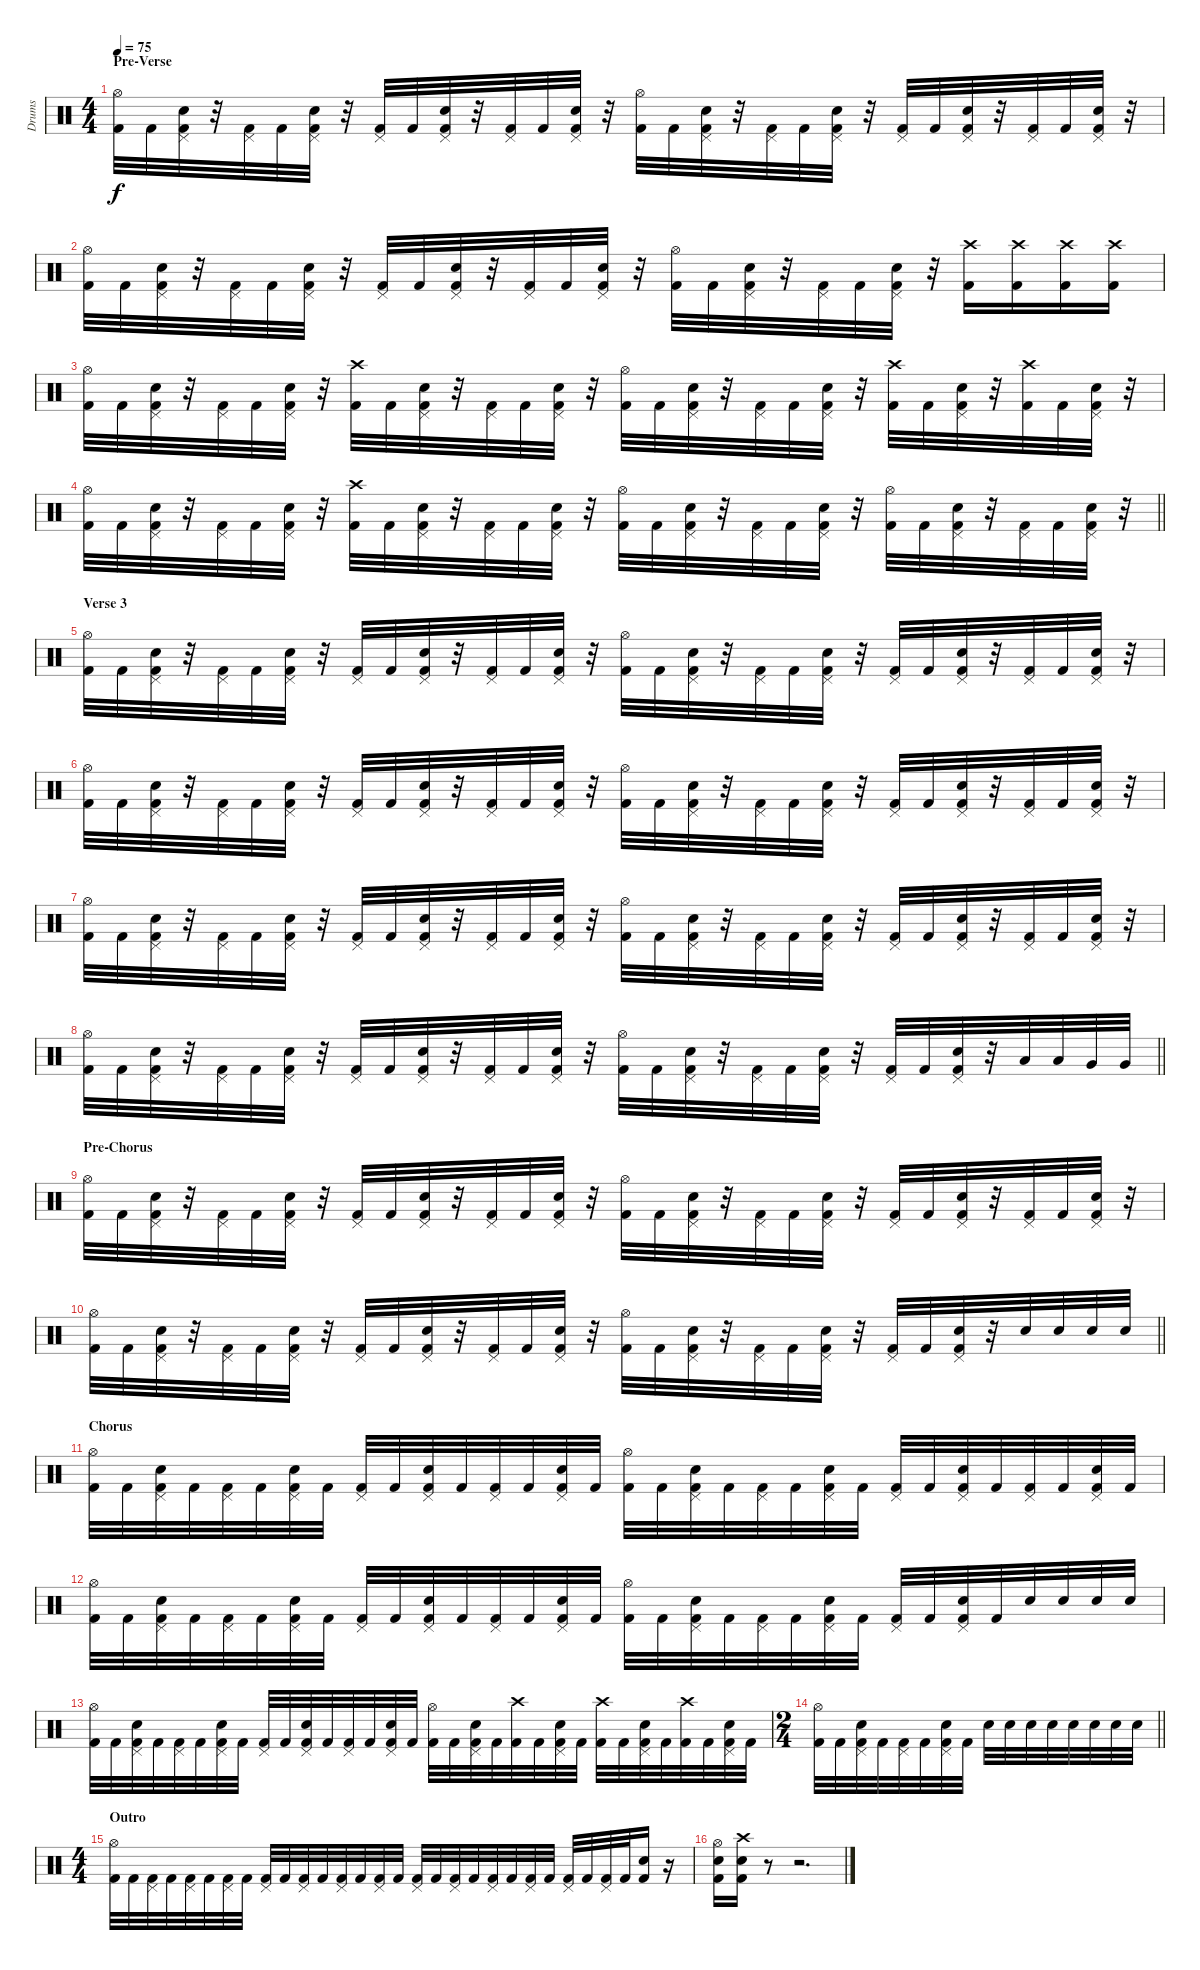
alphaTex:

\track ("Drums" "Drums") {instrument percussion}
\staff {score}
\articulation defaults
\ts (4 4)
\section ("" "Pre-Verse")
\tempo 75
\clef neutral
\ks c
("Hi-Hat (open)" "Kick (hit) 2").32{dy f} "Kick (hit) 2".32 ("Pedal Hi-Hat (hit)" "Snare (hit) 2" "Kick (hit) 2").32 r.32 ("Pedal Hi-Hat (hit)" "Kick (hit) 2").32 "Kick (hit) 2".32 ("Pedal Hi-Hat (hit)" "Snare (hit) 2" "Kick (hit) 2").32 r.32 ("Pedal Hi-Hat (hit)" "Kick (hit) 2").32 "Kick (hit) 2".32 ("Pedal Hi-Hat (hit)" "Snare (hit) 2" "Kick (hit) 2").32 r.32 ("Pedal Hi-Hat (hit)" "Kick (hit) 2").32 "Kick (hit) 2".32 ("Pedal Hi-Hat (hit)" "Snare (hit) 2" "Kick (hit) 2").32 r.32 ("Hi-Hat (open)" "Kick (hit) 2").32 "Kick (hit) 2".32 ("Pedal Hi-Hat (hit)" "Snare (hit) 2" "Kick (hit) 2").32 r.32 ("Pedal Hi-Hat (hit)" "Kick (hit) 2").32 "Kick (hit) 2".32 ("Pedal Hi-Hat (hit)" "Snare (hit) 2" "Kick (hit) 2").32 r.32 ("Pedal Hi-Hat (hit)" "Kick (hit) 2").32 "Kick (hit) 2".32 ("Pedal Hi-Hat (hit)" "Snare (hit) 2" "Kick (hit) 2").32 r.32 ("Pedal Hi-Hat (hit)" "Kick (hit) 2").32 "Kick (hit) 2".32 ("Pedal Hi-Hat (hit)" "Snare (hit) 2" "Kick (hit) 2").32 r.32 |
("Hi-Hat (open)" "Kick (hit) 2").32 "Kick (hit) 2".32 ("Pedal Hi-Hat (hit)" "Snare (hit) 2" "Kick (hit) 2").32 r.32 ("Pedal Hi-Hat (hit)" "Kick (hit) 2").32 "Kick (hit) 2".32 ("Pedal Hi-Hat (hit)" "Snare (hit) 2" "Kick (hit) 2").32 r.32 ("Pedal Hi-Hat (hit)" "Kick (hit) 2").32 "Kick (hit) 2".32 ("Pedal Hi-Hat (hit)" "Snare (hit) 2" "Kick (hit) 2").32 r.32 ("Pedal Hi-Hat (hit)" "Kick (hit) 2").32 "Kick (hit) 2".32 ("Pedal Hi-Hat (hit)" "Snare (hit) 2" "Kick (hit) 2").32 r.32 ("Hi-Hat (open)" "Kick (hit) 2").32 "Kick (hit) 2".32 ("Pedal Hi-Hat (hit)" "Snare (hit) 2" "Kick (hit) 2").32 r.32 ("Pedal Hi-Hat (hit)" "Kick (hit) 2").32 "Kick (hit) 2".32 ("Pedal Hi-Hat (hit)" "Snare (hit) 2" "Kick (hit) 2").32 r.32 ("Crash high (hit)" "Kick (hit) 2").16 ("Crash high (hit)" "Kick (hit) 2").16 ("Crash high (hit)" "Kick (hit) 2").16 ("Crash high (hit)" "Kick (hit) 2").16 |
("Hi-Hat (open)" "Kick (hit) 2").32 "Kick (hit) 2".32 ("Pedal Hi-Hat (hit)" "Snare (hit) 2" "Kick (hit) 2").32 r.32 ("Pedal Hi-Hat (hit)" "Kick (hit) 2").32 "Kick (hit) 2".32 ("Pedal Hi-Hat (hit)" "Snare (hit) 2" "Kick (hit) 2").32 r.32 ("Crash high (hit)" "Kick (hit) 2").32 "Kick (hit) 2".32 ("Pedal Hi-Hat (hit)" "Snare (hit) 2" "Kick (hit) 2").32 r.32 ("Pedal Hi-Hat (hit)" "Kick (hit) 2").32 "Kick (hit) 2".32 ("Pedal Hi-Hat (hit)" "Snare (hit) 2" "Kick (hit) 2").32 r.32 ("Hi-Hat (open)" "Kick (hit) 2").32 "Kick (hit) 2".32 ("Pedal Hi-Hat (hit)" "Snare (hit) 2" "Kick (hit) 2").32 r.32 ("Pedal Hi-Hat (hit)" "Kick (hit) 2").32 "Kick (hit) 2".32 ("Pedal Hi-Hat (hit)" "Snare (hit) 2" "Kick (hit) 2").32 r.32 ("Crash high (hit)" "Kick (hit) 2").32 "Kick (hit) 2".32 ("Pedal Hi-Hat (hit)" "Snare (hit) 2" "Kick (hit) 2").32 r.32 ("Crash high (hit)" "Kick (hit) 2").32 "Kick (hit) 2".32 ("Pedal Hi-Hat (hit)" "Snare (hit) 2" "Kick (hit) 2").32 r.32 |
\barLineRight lightlight
("Hi-Hat (open)" "Kick (hit) 2").32 "Kick (hit) 2".32 ("Pedal Hi-Hat (hit)" "Snare (hit) 2" "Kick (hit) 2").32 r.32 ("Pedal Hi-Hat (hit)" "Kick (hit) 2").32 "Kick (hit) 2".32 ("Pedal Hi-Hat (hit)" "Snare (hit) 2" "Kick (hit) 2").32 r.32 ("Crash high (hit)" "Kick (hit) 2").32 "Kick (hit) 2".32 ("Pedal Hi-Hat (hit)" "Snare (hit) 2" "Kick (hit) 2").32 r.32 ("Pedal Hi-Hat (hit)" "Kick (hit) 2").32 "Kick (hit) 2".32 ("Pedal Hi-Hat (hit)" "Snare (hit) 2" "Kick (hit) 2").32 r.32 ("Hi-Hat (open)" "Kick (hit) 2").32 "Kick (hit) 2".32 ("Pedal Hi-Hat (hit)" "Snare (hit) 2" "Kick (hit) 2").32 r.32 ("Pedal Hi-Hat (hit)" "Kick (hit) 2").32 "Kick (hit) 2".32 ("Pedal Hi-Hat (hit)" "Snare (hit) 2" "Kick (hit) 2").32 r.32 ("Hi-Hat (open)" "Kick (hit) 2").32 "Kick (hit) 2".32 ("Pedal Hi-Hat (hit)" "Snare (hit) 2" "Kick (hit) 2").32 r.32 ("Pedal Hi-Hat (hit)" "Kick (hit) 2").32 "Kick (hit) 2".32 ("Pedal Hi-Hat (hit)" "Snare (hit) 2" "Kick (hit) 2").32 r.32 |
\section ("" "Verse 3")
("Hi-Hat (open)" "Kick (hit) 2").32 "Kick (hit) 2".32 ("Pedal Hi-Hat (hit)" "Snare (hit) 2" "Kick (hit) 2").32 r.32 ("Pedal Hi-Hat (hit)" "Kick (hit) 2").32 "Kick (hit) 2".32 ("Pedal Hi-Hat (hit)" "Snare (hit) 2" "Kick (hit) 2").32 r.32 ("Pedal Hi-Hat (hit)" "Kick (hit) 2").32 "Kick (hit) 2".32 ("Pedal Hi-Hat (hit)" "Snare (hit) 2" "Kick (hit) 2").32 r.32 ("Pedal Hi-Hat (hit)" "Kick (hit) 2").32 "Kick (hit) 2".32 ("Pedal Hi-Hat (hit)" "Snare (hit) 2" "Kick (hit) 2").32 r.32 ("Hi-Hat (open)" "Kick (hit) 2").32 "Kick (hit) 2".32 ("Pedal Hi-Hat (hit)" "Snare (hit) 2" "Kick (hit) 2").32 r.32 ("Pedal Hi-Hat (hit)" "Kick (hit) 2").32 "Kick (hit) 2".32 ("Pedal Hi-Hat (hit)" "Snare (hit) 2" "Kick (hit) 2").32 r.32 ("Pedal Hi-Hat (hit)" "Kick (hit) 2").32 "Kick (hit) 2".32 ("Pedal Hi-Hat (hit)" "Snare (hit) 2" "Kick (hit) 2").32 r.32 ("Pedal Hi-Hat (hit)" "Kick (hit) 2").32 "Kick (hit) 2".32 ("Pedal Hi-Hat (hit)" "Snare (hit) 2" "Kick (hit) 2").32 r.32 |
("Hi-Hat (open)" "Kick (hit) 2").32 "Kick (hit) 2".32 ("Pedal Hi-Hat (hit)" "Snare (hit) 2" "Kick (hit) 2").32 r.32 ("Pedal Hi-Hat (hit)" "Kick (hit) 2").32 "Kick (hit) 2".32 ("Pedal Hi-Hat (hit)" "Snare (hit) 2" "Kick (hit) 2").32 r.32 ("Pedal Hi-Hat (hit)" "Kick (hit) 2").32 "Kick (hit) 2".32 ("Pedal Hi-Hat (hit)" "Snare (hit) 2" "Kick (hit) 2").32 r.32 ("Pedal Hi-Hat (hit)" "Kick (hit) 2").32 "Kick (hit) 2".32 ("Pedal Hi-Hat (hit)" "Snare (hit) 2" "Kick (hit) 2").32 r.32 ("Hi-Hat (open)" "Kick (hit) 2").32 "Kick (hit) 2".32 ("Pedal Hi-Hat (hit)" "Snare (hit) 2" "Kick (hit) 2").32 r.32 ("Pedal Hi-Hat (hit)" "Kick (hit) 2").32 "Kick (hit) 2".32 ("Pedal Hi-Hat (hit)" "Snare (hit) 2" "Kick (hit) 2").32 r.32 ("Pedal Hi-Hat (hit)" "Kick (hit) 2").32 "Kick (hit) 2".32 ("Pedal Hi-Hat (hit)" "Snare (hit) 2" "Kick (hit) 2").32 r.32 ("Pedal Hi-Hat (hit)" "Kick (hit) 2").32 "Kick (hit) 2".32 ("Pedal Hi-Hat (hit)" "Snare (hit) 2" "Kick (hit) 2").32 r.32 |
("Hi-Hat (open)" "Kick (hit) 2").32 "Kick (hit) 2".32 ("Pedal Hi-Hat (hit)" "Snare (hit) 2" "Kick (hit) 2").32 r.32 ("Pedal Hi-Hat (hit)" "Kick (hit) 2").32 "Kick (hit) 2".32 ("Pedal Hi-Hat (hit)" "Snare (hit) 2" "Kick (hit) 2").32 r.32 ("Pedal Hi-Hat (hit)" "Kick (hit) 2").32 "Kick (hit) 2".32 ("Pedal Hi-Hat (hit)" "Snare (hit) 2" "Kick (hit) 2").32 r.32 ("Pedal Hi-Hat (hit)" "Kick (hit) 2").32 "Kick (hit) 2".32 ("Pedal Hi-Hat (hit)" "Snare (hit) 2" "Kick (hit) 2").32 r.32 ("Hi-Hat (open)" "Kick (hit) 2").32 "Kick (hit) 2".32 ("Pedal Hi-Hat (hit)" "Snare (hit) 2" "Kick (hit) 2").32 r.32 ("Pedal Hi-Hat (hit)" "Kick (hit) 2").32 "Kick (hit) 2".32 ("Pedal Hi-Hat (hit)" "Snare (hit) 2" "Kick (hit) 2").32 r.32 ("Pedal Hi-Hat (hit)" "Kick (hit) 2").32 "Kick (hit) 2".32 ("Pedal Hi-Hat (hit)" "Snare (hit) 2" "Kick (hit) 2").32 r.32 ("Pedal Hi-Hat (hit)" "Kick (hit) 2").32 "Kick (hit) 2".32 ("Pedal Hi-Hat (hit)" "Snare (hit) 2" "Kick (hit) 2").32 r.32 |
\barLineRight lightlight
("Hi-Hat (open)" "Kick (hit) 2").32 "Kick (hit) 2".32 ("Pedal Hi-Hat (hit)" "Snare (hit) 2" "Kick (hit) 2").32 r.32 ("Pedal Hi-Hat (hit)" "Kick (hit) 2").32 "Kick (hit) 2".32 ("Pedal Hi-Hat (hit)" "Snare (hit) 2" "Kick (hit) 2").32 r.32 ("Pedal Hi-Hat (hit)" "Kick (hit) 2").32 "Kick (hit) 2".32 ("Pedal Hi-Hat (hit)" "Snare (hit) 2" "Kick (hit) 2").32 r.32 ("Pedal Hi-Hat (hit)" "Kick (hit) 2").32 "Kick (hit) 2".32 ("Pedal Hi-Hat (hit)" "Snare (hit) 2" "Kick (hit) 2").32 r.32 ("Hi-Hat (open)" "Kick (hit) 2").32 "Kick (hit) 2".32 ("Pedal Hi-Hat (hit)" "Snare (hit) 2" "Kick (hit) 2").32 r.32 ("Pedal Hi-Hat (hit)" "Kick (hit) 2").32 "Kick (hit) 2".32 ("Pedal Hi-Hat (hit)" "Snare (hit) 2" "Kick (hit) 2").32 r.32 ("Pedal Hi-Hat (hit)" "Kick (hit) 2").32 "Kick (hit) 2".32 ("Pedal Hi-Hat (hit)" "Snare (hit) 2" "Kick (hit) 2").32 r.32 "Low Tom (hit)".32 "Low Tom (hit)".32 "Very Low Tom (hit)".32 "Very Low Tom (hit)".32 |
\section ("" "Pre-Chorus")
("Hi-Hat (open)" "Kick (hit) 2").32 "Kick (hit) 2".32 ("Pedal Hi-Hat (hit)" "Snare (hit) 2" "Kick (hit) 2").32 r.32 ("Pedal Hi-Hat (hit)" "Kick (hit) 2").32 "Kick (hit) 2".32 ("Pedal Hi-Hat (hit)" "Snare (hit) 2" "Kick (hit) 2").32 r.32 ("Pedal Hi-Hat (hit)" "Kick (hit) 2").32 "Kick (hit) 2".32 ("Pedal Hi-Hat (hit)" "Snare (hit) 2" "Kick (hit) 2").32 r.32 ("Pedal Hi-Hat (hit)" "Kick (hit) 2").32 "Kick (hit) 2".32 ("Pedal Hi-Hat (hit)" "Snare (hit) 2" "Kick (hit) 2").32 r.32 ("Hi-Hat (open)" "Kick (hit) 2").32 "Kick (hit) 2".32 ("Pedal Hi-Hat (hit)" "Snare (hit) 2" "Kick (hit) 2").32 r.32 ("Pedal Hi-Hat (hit)" "Kick (hit) 2").32 "Kick (hit) 2".32 ("Pedal Hi-Hat (hit)" "Snare (hit) 2" "Kick (hit) 2").32 r.32 ("Pedal Hi-Hat (hit)" "Kick (hit) 2").32 "Kick (hit) 2".32 ("Pedal Hi-Hat (hit)" "Snare (hit) 2" "Kick (hit) 2").32 r.32 ("Pedal Hi-Hat (hit)" "Kick (hit) 2").32 "Kick (hit) 2".32 ("Pedal Hi-Hat (hit)" "Snare (hit) 2" "Kick (hit) 2").32 r.32 |
\barLineRight lightlight
("Hi-Hat (open)" "Kick (hit) 2").32 "Kick (hit) 2".32 ("Pedal Hi-Hat (hit)" "Snare (hit) 2" "Kick (hit) 2").32 r.32 ("Pedal Hi-Hat (hit)" "Kick (hit) 2").32 "Kick (hit) 2".32 ("Pedal Hi-Hat (hit)" "Snare (hit) 2" "Kick (hit) 2").32 r.32 ("Pedal Hi-Hat (hit)" "Kick (hit) 2").32 "Kick (hit) 2".32 ("Pedal Hi-Hat (hit)" "Snare (hit) 2" "Kick (hit) 2").32 r.32 ("Pedal Hi-Hat (hit)" "Kick (hit) 2").32 "Kick (hit) 2".32 ("Pedal Hi-Hat (hit)" "Snare (hit) 2" "Kick (hit) 2").32 r.32 ("Hi-Hat (open)" "Kick (hit) 2").32 "Kick (hit) 2".32 ("Pedal Hi-Hat (hit)" "Snare (hit) 2" "Kick (hit) 2").32 r.32 ("Pedal Hi-Hat (hit)" "Kick (hit) 2").32 "Kick (hit) 2".32 ("Pedal Hi-Hat (hit)" "Snare (hit) 2" "Kick (hit) 2").32 r.32 ("Pedal Hi-Hat (hit)" "Kick (hit) 2").32 "Kick (hit) 2".32 ("Pedal Hi-Hat (hit)" "Snare (hit) 2" "Kick (hit) 2").32 r.32 "Snare (hit) 2".32 "Snare (hit) 2".32 "Snare (hit) 2".32 "Snare (hit) 2".32 |
\section ("" "Chorus")
("Hi-Hat (open)" "Kick (hit) 2").32 "Kick (hit) 2".32 ("Pedal Hi-Hat (hit)" "Snare (hit) 2" "Kick (hit) 2").32 "Kick (hit) 2".32 ("Pedal Hi-Hat (hit)" "Kick (hit) 2").32 "Kick (hit) 2".32 ("Pedal Hi-Hat (hit)" "Snare (hit) 2" "Kick (hit) 2").32 "Kick (hit) 2".32 ("Pedal Hi-Hat (hit)" "Kick (hit) 2").32 "Kick (hit) 2".32 ("Pedal Hi-Hat (hit)" "Snare (hit) 2" "Kick (hit) 2").32 "Kick (hit) 2".32 ("Pedal Hi-Hat (hit)" "Kick (hit) 2").32 "Kick (hit) 2".32 ("Pedal Hi-Hat (hit)" "Snare (hit) 2" "Kick (hit) 2").32 "Kick (hit) 2".32 ("Hi-Hat (open)" "Kick (hit) 2").32 "Kick (hit) 2".32 ("Pedal Hi-Hat (hit)" "Snare (hit) 2" "Kick (hit) 2").32 "Kick (hit) 2".32 ("Pedal Hi-Hat (hit)" "Kick (hit) 2").32 "Kick (hit) 2".32 ("Pedal Hi-Hat (hit)" "Snare (hit) 2" "Kick (hit) 2").32 "Kick (hit) 2".32 ("Pedal Hi-Hat (hit)" "Kick (hit) 2").32 "Kick (hit) 2".32 ("Pedal Hi-Hat (hit)" "Snare (hit) 2" "Kick (hit) 2").32 "Kick (hit) 2".32 ("Pedal Hi-Hat (hit)" "Kick (hit) 2").32 "Kick (hit) 2".32 ("Pedal Hi-Hat (hit)" "Snare (hit) 2" "Kick (hit) 2").32 "Kick (hit) 2".32 |
("Hi-Hat (open)" "Kick (hit) 2").32 "Kick (hit) 2".32 ("Pedal Hi-Hat (hit)" "Snare (hit) 2" "Kick (hit) 2").32 "Kick (hit) 2".32 ("Pedal Hi-Hat (hit)" "Kick (hit) 2").32 "Kick (hit) 2".32 ("Pedal Hi-Hat (hit)" "Snare (hit) 2" "Kick (hit) 2").32 "Kick (hit) 2".32 ("Pedal Hi-Hat (hit)" "Kick (hit) 2").32 "Kick (hit) 2".32 ("Pedal Hi-Hat (hit)" "Snare (hit) 2" "Kick (hit) 2").32 "Kick (hit) 2".32 ("Pedal Hi-Hat (hit)" "Kick (hit) 2").32 "Kick (hit) 2".32 ("Pedal Hi-Hat (hit)" "Snare (hit) 2" "Kick (hit) 2").32 "Kick (hit) 2".32 ("Hi-Hat (open)" "Kick (hit) 2").32 "Kick (hit) 2".32 ("Pedal Hi-Hat (hit)" "Snare (hit) 2" "Kick (hit) 2").32 "Kick (hit) 2".32 ("Pedal Hi-Hat (hit)" "Kick (hit) 2").32 "Kick (hit) 2".32 ("Pedal Hi-Hat (hit)" "Snare (hit) 2" "Kick (hit) 2").32 "Kick (hit) 2".32 ("Pedal Hi-Hat (hit)" "Kick (hit) 2").32 "Kick (hit) 2".32 ("Pedal Hi-Hat (hit)" "Snare (hit) 2" "Kick (hit) 2").32 "Kick (hit) 2".32 "Snare (hit) 2".32 "Snare (hit) 2".32 "Snare (hit) 2".32 "Snare (hit) 2".32 |
("Hi-Hat (open)" "Kick (hit) 2").32 "Kick (hit) 2".32 ("Pedal Hi-Hat (hit)" "Snare (hit) 2" "Kick (hit) 2").32 "Kick (hit) 2".32 ("Pedal Hi-Hat (hit)" "Kick (hit) 2").32 "Kick (hit) 2".32 ("Pedal Hi-Hat (hit)" "Snare (hit) 2" "Kick (hit) 2").32 "Kick (hit) 2".32 ("Pedal Hi-Hat (hit)" "Kick (hit) 2").32 "Kick (hit) 2".32 ("Pedal Hi-Hat (hit)" "Snare (hit) 2" "Kick (hit) 2").32 "Kick (hit) 2".32 ("Pedal Hi-Hat (hit)" "Kick (hit) 2").32 "Kick (hit) 2".32 ("Pedal Hi-Hat (hit)" "Snare (hit) 2" "Kick (hit) 2").32 "Kick (hit) 2".32 ("Hi-Hat (open)" "Kick (hit) 2").32 "Kick (hit) 2".32 ("Pedal Hi-Hat (hit)" "Snare (hit) 2" "Kick (hit) 2").32 "Kick (hit) 2".32 ("Crash high (hit)" "Kick (hit) 2").32 "Kick (hit) 2".32 ("Pedal Hi-Hat (hit)" "Snare (hit) 2" "Kick (hit) 2").32 "Kick (hit) 2".32 ("Crash high (hit)" "Kick (hit) 2").32 "Kick (hit) 2".32 ("Pedal Hi-Hat (hit)" "Snare (hit) 2" "Kick (hit) 2").32 "Kick (hit) 2".32 ("Crash high (hit)" "Kick (hit) 2").32 "Kick (hit) 2".32 ("Pedal Hi-Hat (hit)" "Snare (hit) 2" "Kick (hit) 2").32 "Kick (hit) 2".32 |
\ts (2 4)
\barLineRight lightlight
("Hi-Hat (open)" "Kick (hit) 2").32 "Kick (hit) 2".32 ("Pedal Hi-Hat (hit)" "Snare (hit) 2" "Kick (hit) 2").32 "Kick (hit) 2".32 ("Pedal Hi-Hat (hit)" "Kick (hit) 2").32 "Kick (hit) 2".32 ("Pedal Hi-Hat (hit)" "Snare (hit) 2" "Kick (hit) 2").32 "Kick (hit) 2".32 "Snare (hit) 2".32 "Snare (hit) 2".32 "Snare (hit) 2".32 "Snare (hit) 2".32 "Snare (hit) 2".32 "Snare (hit) 2".32 "Snare (hit) 2".32 "Snare (hit) 2".32 |
\ts (4 4)
\section ("" "Outro")
("Hi-Hat (open)" "Kick (hit) 2").32 "Kick (hit) 2".32 ("Pedal Hi-Hat (hit)" "Kick (hit) 2").32 "Kick (hit) 2".32 ("Pedal Hi-Hat (hit)" "Kick (hit) 2").32 "Kick (hit) 2".32 ("Pedal Hi-Hat (hit)" "Kick (hit) 2").32 "Kick (hit) 2".32 ("Pedal Hi-Hat (hit)" "Kick (hit) 2").32 "Kick (hit) 2".32 ("Pedal Hi-Hat (hit)" "Kick (hit) 2").32 "Kick (hit) 2".32 ("Pedal Hi-Hat (hit)" "Kick (hit) 2").32 "Kick (hit) 2".32 ("Pedal Hi-Hat (hit)" "Kick (hit) 2").32 "Kick (hit) 2".32 ("Pedal Hi-Hat (hit)" "Kick (hit) 2").32 "Kick (hit) 2".32 ("Pedal Hi-Hat (hit)" "Kick (hit) 2").32 "Kick (hit) 2".32 ("Pedal Hi-Hat (hit)" "Kick (hit) 2").32 "Kick (hit) 2".32 ("Pedal Hi-Hat (hit)" "Kick (hit) 2").32 "Kick (hit) 2".32 ("Pedal Hi-Hat (hit)" "Kick (hit) 2").32 "Kick (hit) 2".32 ("Pedal Hi-Hat (hit)" "Kick (hit) 2").32 "Kick (hit) 2".32 ("Snare (hit) 2" "Kick (hit) 2").16 r.16 |
("Hi-Hat (open)" "Snare (hit) 2" "Kick (hit) 2").16 ("Crash high (hit)" "Snare (hit) 2" "Kick (hit) 2").16 r.8 r.2{d}
